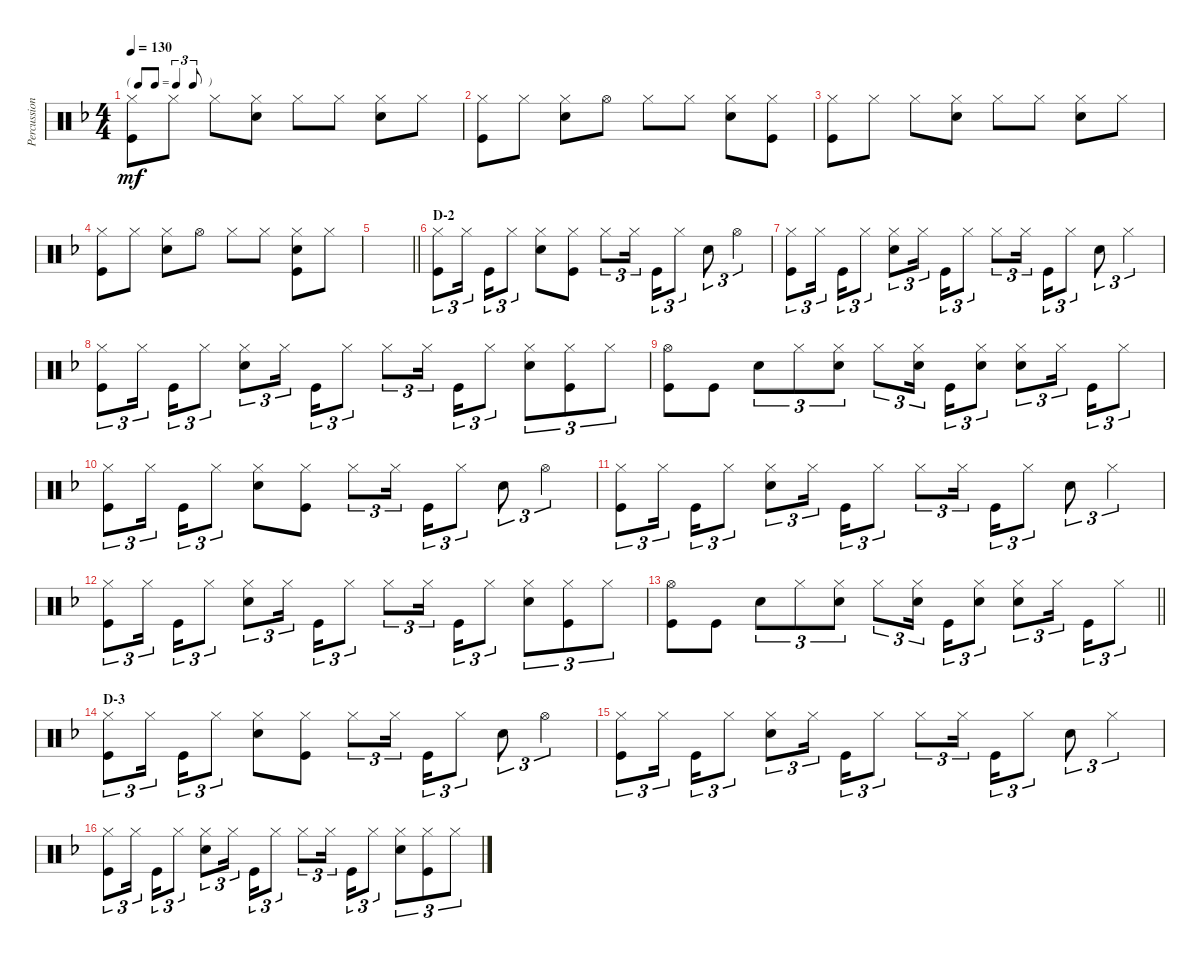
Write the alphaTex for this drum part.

\track ("Percussion I (Tainaka Ritsu)" "Percussion") {instrument percussion}
\staff {score}
\articulation defaults
\ts (4 4)
\tf triplet8th
\tempo 130
\clef neutral
\ks f
("Hi-Hat (closed)" "Kick (hit)").8{dy mf} "Hi-Hat (closed)".8 "Hi-Hat (closed)".8 ("Hi-Hat (closed)" "Snare (hit) 2").8 "Hi-Hat (closed)".8 "Hi-Hat (closed)".8 ("Hi-Hat (closed)" "Snare (hit) 2").8 "Hi-Hat (closed)".8 |
("Hi-Hat (closed)" "Kick (hit)").8 "Hi-Hat (closed)".8 ("Hi-Hat (closed)" "Snare (hit) 2").8 "Hi-Hat (open)".8 "Hi-Hat (closed)".8 "Hi-Hat (closed)".8 ("Hi-Hat (closed)" "Snare (hit) 2").8 ("Hi-Hat (closed)" "Kick (hit)").8 |
("Hi-Hat (closed)" "Kick (hit)").8 "Hi-Hat (closed)".8 "Hi-Hat (closed)".8 ("Hi-Hat (closed)" "Snare (hit) 2").8 "Hi-Hat (closed)".8 "Hi-Hat (closed)".8 ("Hi-Hat (closed)" "Snare (hit) 2").8 "Hi-Hat (closed)".8 |
("Hi-Hat (closed)" "Kick (hit)").8 "Hi-Hat (closed)".8 ("Hi-Hat (closed)" "Snare (hit) 2").8 "Hi-Hat (open)".8 "Hi-Hat (closed)".8 "Hi-Hat (closed)".8 ("Hi-Hat (closed)" "Snare (hit) 2" "Kick (hit)").8 "Hi-Hat (closed)".8 |
\barLineRight lightlight
|
\section ("" "D-2")
("Hi-Hat (closed)" "Kick (hit)").8{tu (3 2)} "Hi-Hat (closed)".16{tu (3 2) beam splitsecondary} "Kick (hit)".16{tu (3 2)} "Hi-Hat (closed)".8{tu (3 2)} ("Hi-Hat (closed)" "Snare (hit) 2").8 ("Hi-Hat (closed)" "Kick (hit)").8 "Hi-Hat (closed)".8{tu (3 2)} "Hi-Hat (closed)".16{tu (3 2) beam splitsecondary} "Kick (hit)".16{tu (3 2)} "Hi-Hat (closed)".8{tu (3 2)} "Snare (hit) 2".8{tu (3 2)} "Hi-Hat (open)".4{tu (3 2)} |
("Hi-Hat (closed)" "Kick (hit)").8{tu (3 2)} "Hi-Hat (closed)".16{tu (3 2) beam splitsecondary} "Kick (hit)".16{tu (3 2)} "Hi-Hat (closed)".8{tu (3 2)} ("Hi-Hat (closed)" "Snare (hit) 2").8{tu (3 2)} "Hi-Hat (closed)".16{tu (3 2) beam splitsecondary} "Kick (hit)".16{tu (3 2)} "Hi-Hat (closed)".8{tu (3 2)} "Hi-Hat (closed)".8{tu (3 2)} "Hi-Hat (closed)".16{tu (3 2) beam splitsecondary} "Kick (hit)".16{tu (3 2)} "Hi-Hat (closed)".8{tu (3 2)} "Snare (hit) 2".8{tu (3 2)} "Hi-Hat (closed)".4{tu (3 2)} |
("Hi-Hat (closed)" "Kick (hit)").8{tu (3 2)} "Hi-Hat (closed)".16{tu (3 2) beam splitsecondary} "Kick (hit)".16{tu (3 2)} "Hi-Hat (closed)".8{tu (3 2)} ("Hi-Hat (closed)" "Snare (hit) 2").8{tu (3 2)} "Hi-Hat (closed)".16{tu (3 2) beam splitsecondary} "Kick (hit)".16{tu (3 2)} "Hi-Hat (closed)".8{tu (3 2)} "Hi-Hat (closed)".8{tu (3 2)} "Hi-Hat (closed)".16{tu (3 2) beam splitsecondary} "Kick (hit)".16{tu (3 2)} "Hi-Hat (closed)".8{tu (3 2)} ("Hi-Hat (closed)" "Snare (hit) 2").8{tu (3 2)} ("Hi-Hat (closed)" "Kick (hit)").8{tu (3 2)} "Hi-Hat (closed)".8{tu (3 2)} |
("Hi-Hat (open)" "Kick (hit)").8 "Kick (hit)".8 "Snare (hit) 2".8{tu (3 2)} "Hi-Hat (closed)".8{tu (3 2)} ("Hi-Hat (closed)" "Snare (hit) 2").8{tu (3 2)} "Hi-Hat (closed)".8{tu (3 2)} ("Hi-Hat (closed)" "Snare (hit) 2").16{tu (3 2) beam splitsecondary} "Kick (hit)".16{tu (3 2)} ("Hi-Hat (closed)" "Snare (hit) 2").8{tu (3 2)} ("Hi-Hat (closed)" "Snare (hit) 2").8{tu (3 2)} "Hi-Hat (closed)".16{tu (3 2) beam splitsecondary} "Kick (hit)".16{tu (3 2)} "Hi-Hat (closed)".8{tu (3 2)} |
("Hi-Hat (closed)" "Kick (hit)").8{tu (3 2)} "Hi-Hat (closed)".16{tu (3 2) beam splitsecondary} "Kick (hit)".16{tu (3 2)} "Hi-Hat (closed)".8{tu (3 2)} ("Hi-Hat (closed)" "Snare (hit) 2").8 ("Hi-Hat (closed)" "Kick (hit)").8 "Hi-Hat (closed)".8{tu (3 2)} "Hi-Hat (closed)".16{tu (3 2) beam splitsecondary} "Kick (hit)".16{tu (3 2)} "Hi-Hat (closed)".8{tu (3 2)} "Snare (hit) 2".8{tu (3 2)} "Hi-Hat (open)".4{tu (3 2)} |
("Hi-Hat (closed)" "Kick (hit)").8{tu (3 2)} "Hi-Hat (closed)".16{tu (3 2) beam splitsecondary} "Kick (hit)".16{tu (3 2)} "Hi-Hat (closed)".8{tu (3 2)} ("Hi-Hat (closed)" "Snare (hit) 2").8{tu (3 2)} "Hi-Hat (closed)".16{tu (3 2) beam splitsecondary} "Kick (hit)".16{tu (3 2)} "Hi-Hat (closed)".8{tu (3 2)} "Hi-Hat (closed)".8{tu (3 2)} "Hi-Hat (closed)".16{tu (3 2) beam splitsecondary} "Kick (hit)".16{tu (3 2)} "Hi-Hat (closed)".8{tu (3 2)} "Snare (hit) 2".8{tu (3 2)} "Hi-Hat (closed)".4{tu (3 2)} |
("Hi-Hat (closed)" "Kick (hit)").8{tu (3 2)} "Hi-Hat (closed)".16{tu (3 2) beam splitsecondary} "Kick (hit)".16{tu (3 2)} "Hi-Hat (closed)".8{tu (3 2)} ("Hi-Hat (closed)" "Snare (hit) 2").8{tu (3 2)} "Hi-Hat (closed)".16{tu (3 2) beam splitsecondary} "Kick (hit)".16{tu (3 2)} "Hi-Hat (closed)".8{tu (3 2)} "Hi-Hat (closed)".8{tu (3 2)} "Hi-Hat (closed)".16{tu (3 2) beam splitsecondary} "Kick (hit)".16{tu (3 2)} "Hi-Hat (closed)".8{tu (3 2)} ("Hi-Hat (closed)" "Snare (hit) 2").8{tu (3 2)} ("Hi-Hat (closed)" "Kick (hit)").8{tu (3 2)} "Hi-Hat (closed)".8{tu (3 2)} |
\barLineRight lightlight
("Hi-Hat (open)" "Kick (hit)").8 "Kick (hit)".8 "Snare (hit) 2".8{tu (3 2)} "Hi-Hat (closed)".8{tu (3 2)} ("Hi-Hat (closed)" "Snare (hit) 2").8{tu (3 2)} "Hi-Hat (closed)".8{tu (3 2)} ("Hi-Hat (closed)" "Snare (hit) 2").16{tu (3 2) beam splitsecondary} "Kick (hit)".16{tu (3 2)} ("Hi-Hat (closed)" "Snare (hit) 2").8{tu (3 2)} ("Hi-Hat (closed)" "Snare (hit) 2").8{tu (3 2)} "Hi-Hat (closed)".16{tu (3 2) beam splitsecondary} "Kick (hit)".16{tu (3 2)} "Hi-Hat (closed)".8{tu (3 2)} |
\section ("" "D-3")
("Hi-Hat (closed)" "Kick (hit)").8{tu (3 2)} "Hi-Hat (closed)".16{tu (3 2) beam splitsecondary} "Kick (hit)".16{tu (3 2)} "Hi-Hat (closed)".8{tu (3 2)} ("Hi-Hat (closed)" "Snare (hit) 2").8 ("Hi-Hat (closed)" "Kick (hit)").8 "Hi-Hat (closed)".8{tu (3 2)} "Hi-Hat (closed)".16{tu (3 2) beam splitsecondary} "Kick (hit)".16{tu (3 2)} "Hi-Hat (closed)".8{tu (3 2)} "Snare (hit) 2".8{tu (3 2)} "Hi-Hat (open)".4{tu (3 2)} |
("Hi-Hat (closed)" "Kick (hit)").8{tu (3 2)} "Hi-Hat (closed)".16{tu (3 2) beam splitsecondary} "Kick (hit)".16{tu (3 2)} "Hi-Hat (closed)".8{tu (3 2)} ("Hi-Hat (closed)" "Snare (hit) 2").8{tu (3 2)} "Hi-Hat (closed)".16{tu (3 2) beam splitsecondary} "Kick (hit)".16{tu (3 2)} "Hi-Hat (closed)".8{tu (3 2)} "Hi-Hat (closed)".8{tu (3 2)} "Hi-Hat (closed)".16{tu (3 2) beam splitsecondary} "Kick (hit)".16{tu (3 2)} "Hi-Hat (closed)".8{tu (3 2)} "Snare (hit) 2".8{tu (3 2)} "Hi-Hat (closed)".4{tu (3 2)} |
("Hi-Hat (closed)" "Kick (hit)").8{tu (3 2)} "Hi-Hat (closed)".16{tu (3 2) beam splitsecondary} "Kick (hit)".16{tu (3 2)} "Hi-Hat (closed)".8{tu (3 2)} ("Hi-Hat (closed)" "Snare (hit) 2").8{tu (3 2)} "Hi-Hat (closed)".16{tu (3 2) beam splitsecondary} "Kick (hit)".16{tu (3 2)} "Hi-Hat (closed)".8{tu (3 2)} "Hi-Hat (closed)".8{tu (3 2)} "Hi-Hat (closed)".16{tu (3 2) beam splitsecondary} "Kick (hit)".16{tu (3 2)} "Hi-Hat (closed)".8{tu (3 2)} ("Hi-Hat (closed)" "Snare (hit) 2").8{tu (3 2)} ("Hi-Hat (closed)" "Kick (hit)").8{tu (3 2)} "Hi-Hat (closed)".8{tu (3 2)}
